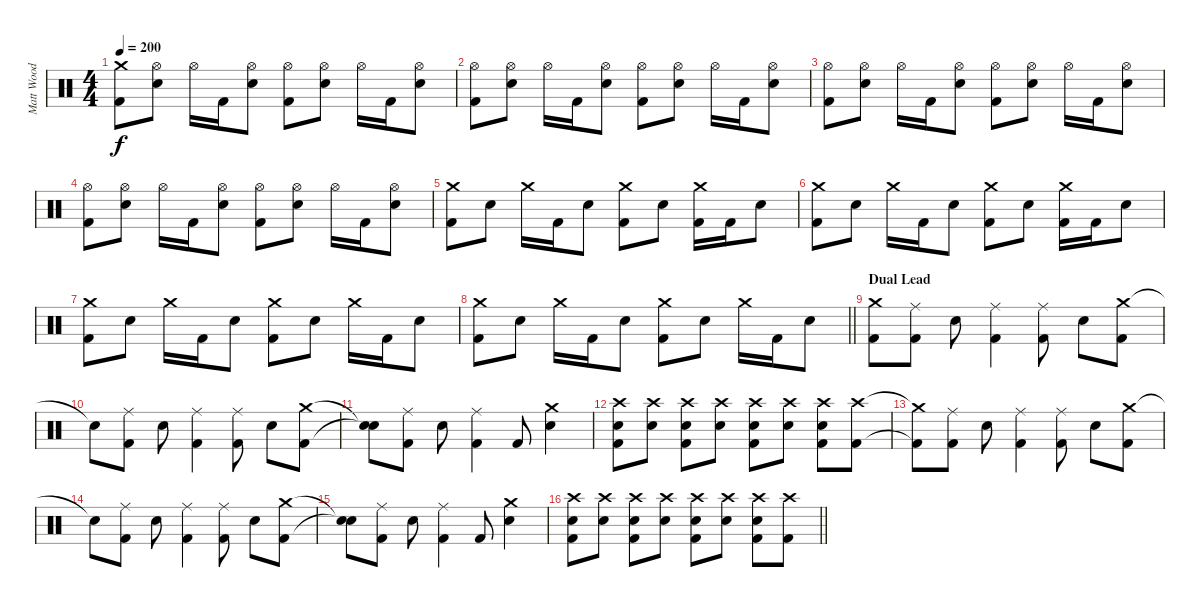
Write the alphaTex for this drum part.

\track ("Matt Wood" "Matt Wood") {instrument percussion}
\staff {score}
\articulation defaults
\ts (4 4)
\tempo 200
\clef neutral
\ks c
("Crash medium (hit)" "Kick (hit) 2").8{dy f} ("Hi-Hat (open)" "Snare (hit) 2").8 "Hi-Hat (open)".16 "Kick (hit) 2".16 ("Hi-Hat (open)" "Snare (hit) 2").8 ("Hi-Hat (open)" "Kick (hit) 2").8 ("Hi-Hat (open)" "Snare (hit) 2").8 "Hi-Hat (open)".16 "Kick (hit) 2".16 ("Hi-Hat (open)" "Snare (hit) 2").8 |
("Hi-Hat (open)" "Kick (hit) 2").8 ("Hi-Hat (open)" "Snare (hit) 2").8 "Hi-Hat (open)".16 "Kick (hit) 2".16 ("Hi-Hat (open)" "Snare (hit) 2").8 ("Hi-Hat (open)" "Kick (hit) 2").8 ("Hi-Hat (open)" "Snare (hit) 2").8 "Hi-Hat (open)".16 "Kick (hit) 2".16 ("Hi-Hat (open)" "Snare (hit) 2").8 |
("Hi-Hat (open)" "Kick (hit) 2").8 ("Hi-Hat (open)" "Snare (hit) 2").8 "Hi-Hat (open)".16 "Kick (hit) 2".16 ("Hi-Hat (open)" "Snare (hit) 2").8 ("Hi-Hat (open)" "Kick (hit) 2").8 ("Hi-Hat (open)" "Snare (hit) 2").8 "Hi-Hat (open)".16 "Kick (hit) 2".16 ("Hi-Hat (open)" "Snare (hit) 2").8 |
("Hi-Hat (open)" "Kick (hit) 2").8 ("Hi-Hat (open)" "Snare (hit) 2").8 "Hi-Hat (open)".16 "Kick (hit) 2".16 ("Hi-Hat (open)" "Snare (hit) 2").8 ("Hi-Hat (open)" "Kick (hit) 2").8 ("Hi-Hat (open)" "Snare (hit) 2").8 "Hi-Hat (open)".16 "Kick (hit) 2".16 ("Hi-Hat (open)" "Snare (hit) 2").8 |
("Crash medium (hit)" "Kick (hit) 2").8 "Snare (hit) 2".8 "Crash medium (hit)".16 "Kick (hit) 2".16 "Snare (hit) 2".8 ("Crash medium (hit)" "Kick (hit) 2").8 "Snare (hit) 2".8 ("Crash medium (hit)" "Kick (hit) 2").16 "Kick (hit) 2".16 "Snare (hit) 2".8 |
("Crash medium (hit)" "Kick (hit) 2").8 "Snare (hit) 2".8 "Crash medium (hit)".16 "Kick (hit) 2".16 "Snare (hit) 2".8 ("Crash medium (hit)" "Kick (hit) 2").8 "Snare (hit) 2".8 ("Crash medium (hit)" "Kick (hit) 2").16 "Kick (hit) 2".16 "Snare (hit) 2".8 |
("Crash medium (hit)" "Kick (hit) 2").8 "Snare (hit) 2".8 "Crash medium (hit)".16 "Kick (hit) 2".16 "Snare (hit) 2".8 ("Crash medium (hit)" "Kick (hit) 2").8 "Snare (hit) 2".8 "Crash medium (hit)".16 "Kick (hit) 2".16 "Snare (hit) 2".8 |
\barLineRight lightlight
("Crash medium (hit)" "Kick (hit) 2").8 "Snare (hit) 2".8 "Crash medium (hit)".16 "Kick (hit) 2".16 "Snare (hit) 2".8 ("Crash medium (hit)" "Kick (hit) 2").8 "Snare (hit) 2".8 "Crash medium (hit)".16 "Kick (hit) 2".16 "Snare (hit) 2".8 |
\section ("" "Dual Lead")
("Crash medium (hit)" "Kick (hit) 2").8 ("Ride (middle)" "Kick (hit) 2").8 "Snare (hit) 2".8 ("Ride (middle)" "Kick (hit) 2").4 ("Ride (middle)" "Kick (hit) 2").8 "Snare (hit) 2".8 ("Crash medium (hit)" "Kick (hit) 2").8 |
"Snare (hit)"{t}.8 ("Ride (middle)" "Kick (hit) 2").8 "Snare (hit) 2".8 ("Ride (middle)" "Kick (hit) 2").4 ("Ride (middle)" "Kick (hit) 2").8 "Snare (hit) 2".8 ("Crash medium (hit)" "Kick (hit) 2").8 |
("Snare (hit)"{t} "Snare (hit)"{t}).8 ("Ride (middle)" "Kick (hit) 2").8 "Snare (hit) 2".8 ("Ride (middle)" "Kick (hit) 2").4 "Kick (hit) 2".8 ("Crash medium (hit)" "Snare (hit) 2").4 |
("Crash high (hit)" "Snare (hit) 2" "Kick (hit) 2").8 ("Crash high (hit)" "Snare (hit) 2").8 ("Crash high (hit)" "Snare (hit) 2" "Kick (hit) 2").8 ("Crash high (hit)" "Snare (hit) 2").8 ("Crash high (hit)" "Snare (hit) 2" "Kick (hit) 2").8 ("Crash high (hit)" "Snare (hit) 2").8 ("Crash high (hit)" "Snare (hit) 2" "Kick (hit) 2").8 ("Crash high (hit)" "Kick (hit) 2").8 |
("Crash medium (hit)"{t} "Kick (hit) 2"{t}).8 ("Ride (middle)" "Kick (hit) 2").8 "Snare (hit) 2".8 ("Ride (middle)" "Kick (hit) 2").4 ("Ride (middle)" "Kick (hit) 2").8 "Snare (hit) 2".8 ("Crash medium (hit)" "Kick (hit) 2").8 |
"Snare (hit)"{t}.8 ("Ride (middle)" "Kick (hit) 2").8 "Snare (hit) 2".8 ("Ride (middle)" "Kick (hit) 2").4 ("Ride (middle)" "Kick (hit) 2").8 "Snare (hit) 2".8 ("Crash medium (hit)" "Kick (hit) 2").8 |
("Snare (hit)"{t} "Snare (hit)"{t}).8 ("Ride (middle)" "Kick (hit) 2").8 "Snare (hit) 2".8 ("Ride (middle)" "Kick (hit) 2").4 "Kick (hit) 2".8 ("Crash medium (hit)" "Snare (hit) 2").4 |
\barLineRight lightlight
("Crash high (hit)" "Snare (hit) 2" "Kick (hit) 2").8 ("Crash high (hit)" "Snare (hit) 2").8 ("Crash high (hit)" "Snare (hit) 2" "Kick (hit) 2").8 ("Crash high (hit)" "Snare (hit) 2").8 ("Crash high (hit)" "Snare (hit) 2" "Kick (hit) 2").8 ("Crash high (hit)" "Snare (hit) 2").8 ("Crash high (hit)" "Snare (hit) 2" "Kick (hit) 2").8 ("Crash high (hit)" "Kick (hit) 2").8
